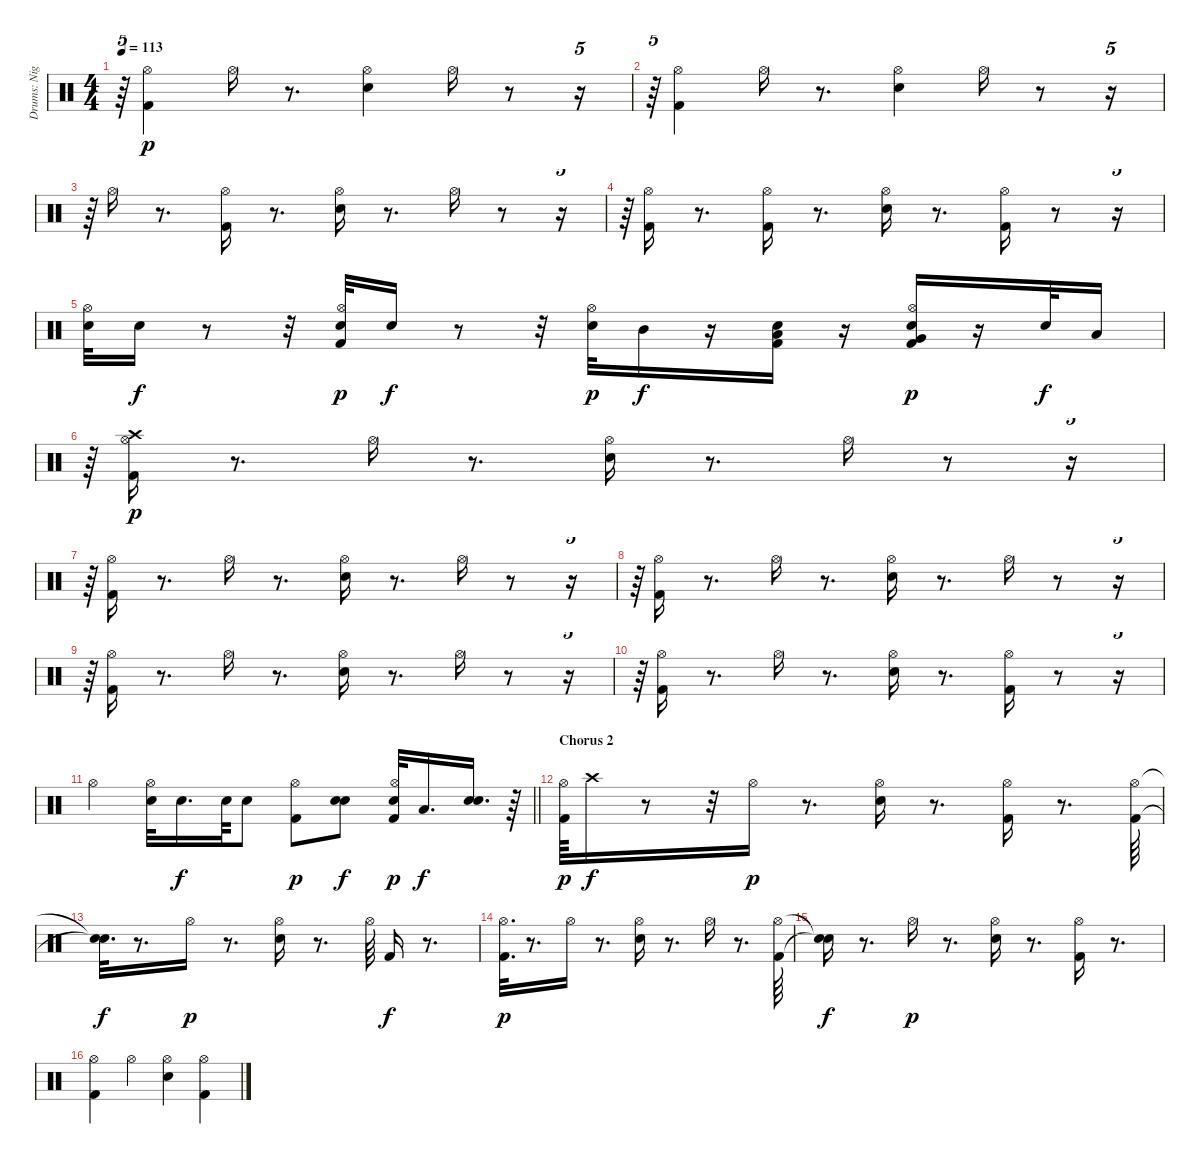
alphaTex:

\track ("Drums: Nigel Olsson" "Drums: Nig") {instrument percussion}
\staff {score}
\articulation defaults
\ts (4 4)
\tempo 113
\clef neutral
\ks c
r.64{tu (5 4) dy p} ("Kick (hit) 2" "Hi-Hat (open)").4 "Hi-Hat (open)".16 r.8{d} ("Snare (hit) 2" "Hi-Hat (open)").4 "Hi-Hat (open)".16 r.8 r.16{tu (5 4)} |
r.64{tu (5 4)} ("Kick (hit) 2" "Hi-Hat (open)").4 "Hi-Hat (open)".16 r.8{d} ("Snare (hit) 2" "Hi-Hat (open)").4 "Hi-Hat (open)".16 r.8 r.16{tu (5 4)} |
r.64{tu (5 4)} "Hi-Hat (open)".16 r.8{d} ("Kick (hit) 2" "Hi-Hat (open)").16 r.8{d} ("Snare (hit) 2" "Hi-Hat (open)").16 r.8{d} "Hi-Hat (open)".16 r.8 r.16{tu (5 4)} |
r.64{tu (5 4)} ("Kick (hit) 2" "Hi-Hat (open)").16 r.8{d} ("Kick (hit) 2" "Hi-Hat (open)").16 r.8{d} ("Snare (hit) 2" "Hi-Hat (open)").16 r.8{d} ("Kick (hit) 2" "Hi-Hat (open)").16 r.8 r.16{tu (5 4)} |
("Snare (hit) 2" "Hi-Hat (open)").32 "Electric Snare (hit)".16{dy f} r.8 r.32 ("Snare (hit) 2" "Kick (hit) 2" "Hi-Hat (open)").32{dy p} "Electric Snare (hit)".16{dy f} r.8 r.32 ("Snare (hit) 2" "Hi-Hat (open)").32{dy p} "Mid Tom (hit)".16{dy f} r.16 ("Snare (hit) 2" "Kick (hit) 2" "Low Tom (hit)").16 r.16 ("Snare (hit) 2" "Kick (hit) 2" "Hi-Hat (open)" "Very Low Tom (hit)").16{dy p} r.16 "Snare (hit) 2".32{dy f} "Low Floor Tom (hit)".16 |
r.64{tu (5 4)} ("Kick (hit) 2" "Hi-Hat (open)" "Crash high (hit)").16{dy p} r.8{d} "Hi-Hat (open)".16 r.8{d} ("Snare (hit) 2" "Hi-Hat (open)").16 r.8{d} "Hi-Hat (open)".16 r.8 r.16{tu (5 4)} |
r.64{tu (5 4)} ("Kick (hit) 2" "Hi-Hat (open)").16 r.8{d} "Hi-Hat (open)".16 r.8{d} ("Snare (hit) 2" "Hi-Hat (open)").16 r.8{d} "Hi-Hat (open)".16 r.8 r.16{tu (5 4)} |
r.64{tu (5 4)} ("Kick (hit) 2" "Hi-Hat (open)").16 r.8{d} "Hi-Hat (open)".16 r.8{d} ("Snare (hit) 2" "Hi-Hat (open)").16 r.8{d} "Hi-Hat (open)".16 r.8 r.16{tu (5 4)} |
r.64{tu (5 4)} ("Kick (hit) 2" "Hi-Hat (open)").16 r.8{d} "Hi-Hat (open)".16 r.8{d} ("Snare (hit) 2" "Hi-Hat (open)").16 r.8{d} "Hi-Hat (open)".16 r.8 r.16{tu (5 4)} |
r.64{tu (5 4)} ("Kick (hit) 2" "Hi-Hat (open)").16 r.8{d} "Hi-Hat (open)".16 r.8{d} ("Snare (hit) 2" "Hi-Hat (open)").16 r.8{d} ("Kick (hit) 2" "Hi-Hat (open)").16 r.8 r.16{tu (5 4)} |
\barLineRight lightlight "Hi-Hat (open)".4
("Hi-Hat (open)" "Snare (hit) 2").32 "Electric Snare (hit)".16{d dy f} "Snare (hit) 2".64 "Electric Snare (hit)".8 ("Hi-Hat (open)" "Kick (hit) 2").8{dy p} ("Snare (hit) 2" "Electric Snare (hit)").8{dy f} ("Kick (hit) 2" "Hi-Hat (open)" "Snare (hit) 2").32{dy p} "Low Tom (hit)".16{d dy f} ("Snare (hit) 2" "Electric Snare (hit)").16{d} r.64 |
\section ("" "Chorus 2")
("Kick (hit) 2" "Hi-Hat (open)").64{dy p} "Crash high (hit)".16{dy f} r.8 r.32 "Hi-Hat (open)".16{dy p} r.8{d} ("Snare (hit) 2" "Hi-Hat (open)").16 r.8{d} ("Kick (hit) 2" "Hi-Hat (open)").16 r.8{d} ("Kick (hit) 2" "Hi-Hat (open)").64 |
("Snare (hit)"{t} "Snare (hit)"{t}).32{d dy f} r.8{d} "Hi-Hat (open)".16{dy p} r.8{d} ("Snare (hit) 2" "Hi-Hat (open)").16 r.8{d} "Hi-Hat (open)".64 "Kick (hit) 2".16{dy f} r.8{d} |
("Kick (hit) 2" "Hi-Hat (open)").32{d dy p} r.8{d} "Hi-Hat (open)".16 r.8{d} ("Snare (hit) 2" "Hi-Hat (open)").16 r.8{d} "Hi-Hat (open)".16 r.8{d} ("Hi-Hat (open)" "Kick (hit) 2").64 |
("Snare (hit)"{t} "Snare (hit)"{t}).16{dy f} r.8{d} "Hi-Hat (open)".16{dy p} r.8{d} ("Hi-Hat (open)" "Snare (hit) 2").16 r.8{d} ("Hi-Hat (open)" "Kick (hit) 2").16 r.8{d} |
("Hi-Hat (open)" "Kick (hit) 2").4 "Hi-Hat (open)".4 ("Hi-Hat (open)" "Snare (hit) 2").4 ("Hi-Hat (open)" "Kick (hit) 2").4
